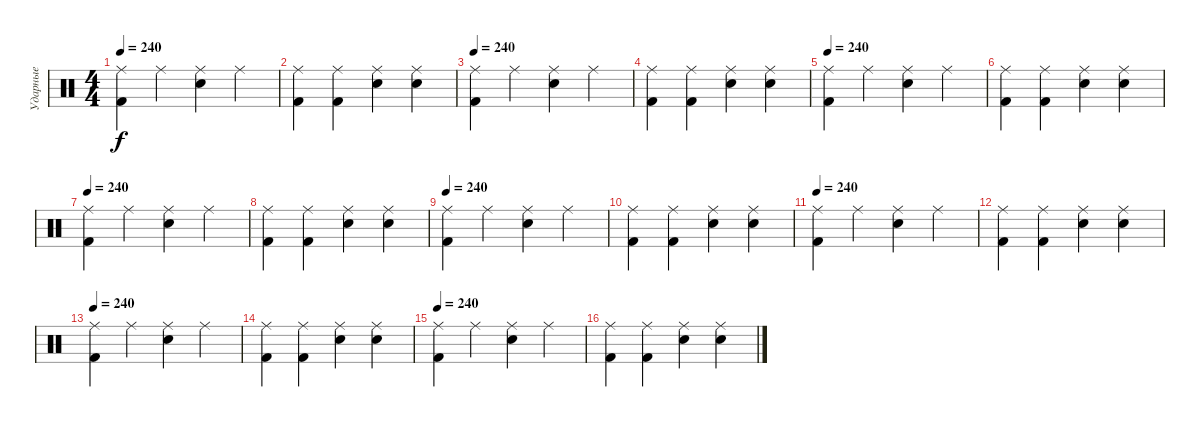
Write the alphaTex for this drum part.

\track ("Ударные" "Ударные") {instrument percussion}
\staff {score}
\articulation defaults
\ts (4 4)
\tempo 240
\clef neutral
\ks c
("Ride (middle)" "Kick (hit) 2").4{dy f} "Ride (middle)".4 ("Ride (middle)" "Electric Snare (hit)").4 "Ride (middle)".4 |
("Ride (middle)" "Kick (hit) 2").4 ("Ride (middle)" "Kick (hit) 2").4 ("Ride (middle)" "Electric Snare (hit)").4 ("Ride (middle)" "Electric Snare (hit)").4 |
\tempo 240
("Ride (middle)" "Kick (hit) 2").4 "Ride (middle)".4 ("Ride (middle)" "Electric Snare (hit)").4 "Ride (middle)".4 |
("Ride (middle)" "Kick (hit) 2").4 ("Ride (middle)" "Kick (hit) 2").4 ("Ride (middle)" "Electric Snare (hit)").4 ("Ride (middle)" "Electric Snare (hit)").4 |
\tempo 240
("Ride (middle)" "Kick (hit) 2").4 "Ride (middle)".4 ("Ride (middle)" "Electric Snare (hit)").4 "Ride (middle)".4 |
("Ride (middle)" "Kick (hit) 2").4 ("Ride (middle)" "Kick (hit) 2").4 ("Ride (middle)" "Electric Snare (hit)").4 ("Ride (middle)" "Electric Snare (hit)").4 |
\tempo 240
("Ride (middle)" "Kick (hit) 2").4 "Ride (middle)".4 ("Ride (middle)" "Electric Snare (hit)").4 "Ride (middle)".4 |
("Ride (middle)" "Kick (hit) 2").4 ("Ride (middle)" "Kick (hit) 2").4 ("Ride (middle)" "Electric Snare (hit)").4 ("Ride (middle)" "Electric Snare (hit)").4 |
\tempo 240
("Ride (middle)" "Kick (hit) 2").4 "Ride (middle)".4 ("Ride (middle)" "Electric Snare (hit)").4 "Ride (middle)".4 |
("Ride (middle)" "Kick (hit) 2").4 ("Ride (middle)" "Kick (hit) 2").4 ("Ride (middle)" "Electric Snare (hit)").4 ("Ride (middle)" "Electric Snare (hit)").4 |
\tempo 240
("Ride (middle)" "Kick (hit) 2").4 "Ride (middle)".4 ("Ride (middle)" "Electric Snare (hit)").4 "Ride (middle)".4 |
("Ride (middle)" "Kick (hit) 2").4 ("Ride (middle)" "Kick (hit) 2").4 ("Ride (middle)" "Electric Snare (hit)").4 ("Ride (middle)" "Electric Snare (hit)").4 |
\tempo 240
("Ride (middle)" "Kick (hit) 2").4 "Ride (middle)".4 ("Ride (middle)" "Electric Snare (hit)").4 "Ride (middle)".4 |
("Ride (middle)" "Kick (hit) 2").4 ("Ride (middle)" "Kick (hit) 2").4 ("Ride (middle)" "Electric Snare (hit)").4 ("Ride (middle)" "Electric Snare (hit)").4 |
\tempo 240
("Ride (middle)" "Kick (hit) 2").4 "Ride (middle)".4 ("Ride (middle)" "Electric Snare (hit)").4 "Ride (middle)".4 |
("Ride (middle)" "Kick (hit) 2").4 ("Ride (middle)" "Kick (hit) 2").4 ("Ride (middle)" "Electric Snare (hit)").4 ("Ride (middle)" "Electric Snare (hit)").4
